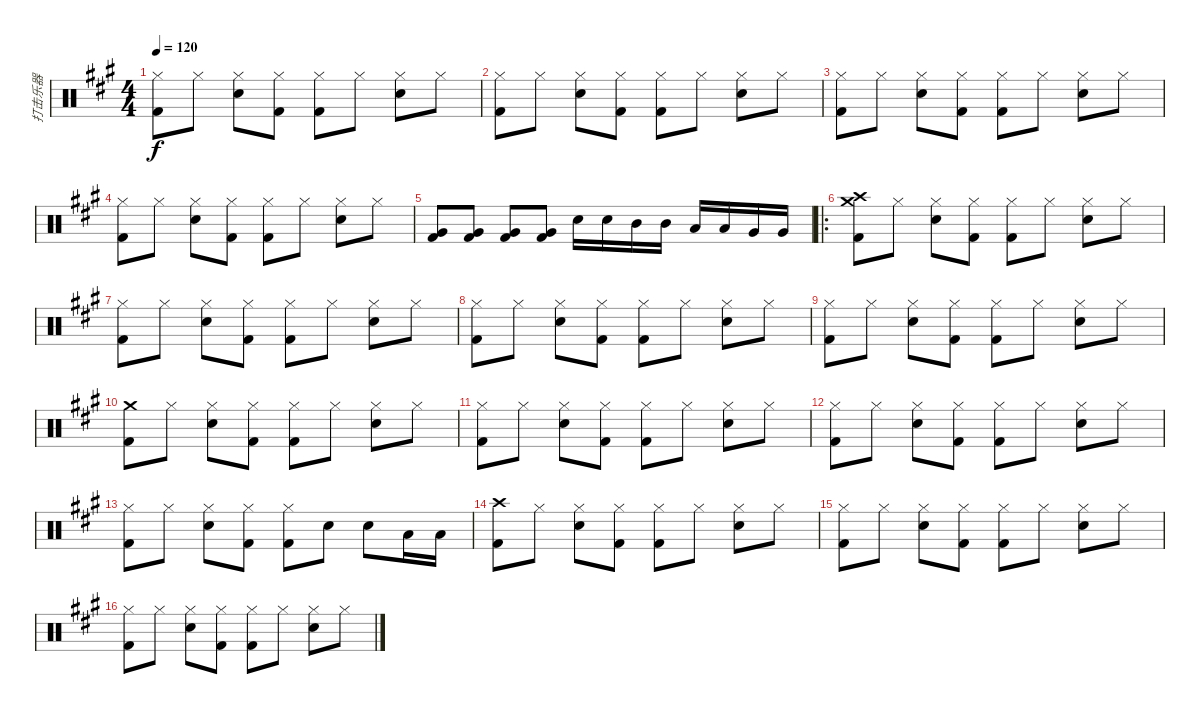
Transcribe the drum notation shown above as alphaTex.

\track ("打击乐器" "打击乐器") {instrument percussion}
\staff {score}
\articulation defaults
\ts (4 4)
\tempo 120
\clef neutral
\ks a
("Hi-Hat (closed)" "Kick (hit) 2").8{dy f} "Hi-Hat (closed)".8 ("Hi-Hat (closed)" "Electric Snare (hit)").8 ("Hi-Hat (closed)" "Kick (hit) 2").8 ("Hi-Hat (closed)" "Kick (hit) 2").8 "Hi-Hat (closed)".8 ("Hi-Hat (closed)" "Electric Snare (hit)").8 "Hi-Hat (closed)".8 |
("Hi-Hat (closed)" "Kick (hit) 2").8 "Hi-Hat (closed)".8 ("Hi-Hat (closed)" "Electric Snare (hit)").8 ("Hi-Hat (closed)" "Kick (hit) 2").8 ("Hi-Hat (closed)" "Kick (hit) 2").8 "Hi-Hat (closed)".8 ("Hi-Hat (closed)" "Electric Snare (hit)").8 "Hi-Hat (closed)".8 |
("Hi-Hat (closed)" "Kick (hit) 2").8 "Hi-Hat (closed)".8 ("Hi-Hat (closed)" "Electric Snare (hit)").8 ("Hi-Hat (closed)" "Kick (hit) 2").8 ("Hi-Hat (closed)" "Kick (hit) 2").8 "Hi-Hat (closed)".8 ("Hi-Hat (closed)" "Electric Snare (hit)").8 "Hi-Hat (closed)".8 |
("Hi-Hat (closed)" "Kick (hit) 2").8 "Hi-Hat (closed)".8 ("Hi-Hat (closed)" "Electric Snare (hit)").8 ("Hi-Hat (closed)" "Kick (hit) 2").8 ("Hi-Hat (closed)" "Kick (hit) 2").8 "Hi-Hat (closed)".8 ("Hi-Hat (closed)" "Electric Snare (hit)").8 "Hi-Hat (closed)".8 |
("Very Low Tom (hit)" "Kick (hit) 2").8 ("Very Low Tom (hit)" "Kick (hit) 2").8 ("Very Low Tom (hit)" "Kick (hit) 2").8 ("Very Low Tom (hit)" "Kick (hit) 2").8 "Electric Snare (hit)".16 "Electric Snare (hit)".16 "Mid Tom (hit)".16 "Mid Tom (hit)".16 "Low Tom (hit)".16 "Low Tom (hit)".16 "Very Low Tom (hit)".16 "Very Low Tom (hit)".16 |
\ro
("Crash high (hit)" "Crash medium (hit)" "Kick (hit) 2").8 "Hi-Hat (closed)".8 ("Hi-Hat (closed)" "Electric Snare (hit)").8 ("Hi-Hat (closed)" "Kick (hit) 2").8 ("Hi-Hat (closed)" "Kick (hit) 2").8 "Hi-Hat (closed)".8 ("Hi-Hat (closed)" "Electric Snare (hit)").8 "Hi-Hat (closed)".8 |
("Hi-Hat (closed)" "Kick (hit) 2").8 "Hi-Hat (closed)".8 ("Hi-Hat (closed)" "Electric Snare (hit)").8 ("Hi-Hat (closed)" "Kick (hit) 2").8 ("Hi-Hat (closed)" "Kick (hit) 2").8 "Hi-Hat (closed)".8 ("Hi-Hat (closed)" "Electric Snare (hit)").8 "Hi-Hat (closed)".8 |
("Hi-Hat (closed)" "Kick (hit) 2").8 "Hi-Hat (closed)".8 ("Hi-Hat (closed)" "Electric Snare (hit)").8 ("Hi-Hat (closed)" "Kick (hit) 2").8 ("Hi-Hat (closed)" "Kick (hit) 2").8 "Hi-Hat (closed)".8 ("Hi-Hat (closed)" "Electric Snare (hit)").8 "Hi-Hat (closed)".8 |
("Hi-Hat (closed)" "Kick (hit) 2").8 "Hi-Hat (closed)".8 ("Hi-Hat (closed)" "Electric Snare (hit)").8 ("Hi-Hat (closed)" "Kick (hit) 2").8 ("Hi-Hat (closed)" "Kick (hit) 2").8 "Hi-Hat (closed)".8 ("Hi-Hat (closed)" "Electric Snare (hit)").8 "Hi-Hat (closed)".8 |
("Crash medium (hit)" "Kick (hit) 2").8 "Hi-Hat (closed)".8 ("Hi-Hat (closed)" "Electric Snare (hit)").8 ("Hi-Hat (closed)" "Kick (hit) 2").8 ("Hi-Hat (closed)" "Kick (hit) 2").8 "Hi-Hat (closed)".8 ("Hi-Hat (closed)" "Electric Snare (hit)").8 "Hi-Hat (closed)".8 |
("Hi-Hat (closed)" "Kick (hit) 2").8 "Hi-Hat (closed)".8 ("Hi-Hat (closed)" "Electric Snare (hit)").8 ("Hi-Hat (closed)" "Kick (hit) 2").8 ("Hi-Hat (closed)" "Kick (hit) 2").8 "Hi-Hat (closed)".8 ("Hi-Hat (closed)" "Electric Snare (hit)").8 "Hi-Hat (closed)".8 |
("Hi-Hat (closed)" "Kick (hit) 2").8 "Hi-Hat (closed)".8 ("Hi-Hat (closed)" "Electric Snare (hit)").8 ("Hi-Hat (closed)" "Kick (hit) 2").8 ("Hi-Hat (closed)" "Kick (hit) 2").8 "Hi-Hat (closed)".8 ("Hi-Hat (closed)" "Electric Snare (hit)").8 "Hi-Hat (closed)".8 |
("Hi-Hat (closed)" "Kick (hit) 2").8 "Hi-Hat (closed)".8 ("Hi-Hat (closed)" "Electric Snare (hit)").8 ("Hi-Hat (closed)" "Kick (hit) 2").8 ("Hi-Hat (closed)" "Kick (hit) 2").8 "Electric Snare (hit)".8 "Electric Snare (hit)".8 "Low Tom (hit)".16 "Low Tom (hit)".16 |
("Crash high (hit)" "Kick (hit) 2").8 "Hi-Hat (closed)".8 ("Hi-Hat (closed)" "Electric Snare (hit)").8 ("Hi-Hat (closed)" "Kick (hit) 2").8 ("Hi-Hat (closed)" "Kick (hit) 2").8 "Hi-Hat (closed)".8 ("Hi-Hat (closed)" "Electric Snare (hit)").8 "Hi-Hat (closed)".8 |
("Hi-Hat (closed)" "Kick (hit) 2").8 "Hi-Hat (closed)".8 ("Hi-Hat (closed)" "Electric Snare (hit)").8 ("Hi-Hat (closed)" "Kick (hit) 2").8 ("Hi-Hat (closed)" "Kick (hit) 2").8 "Hi-Hat (closed)".8 ("Hi-Hat (closed)" "Electric Snare (hit)").8 "Hi-Hat (closed)".8 |
("Hi-Hat (closed)" "Kick (hit) 2").8 "Hi-Hat (closed)".8 ("Hi-Hat (closed)" "Electric Snare (hit)").8 ("Hi-Hat (closed)" "Kick (hit) 2").8 ("Hi-Hat (closed)" "Kick (hit) 2").8 "Hi-Hat (closed)".8 ("Hi-Hat (closed)" "Electric Snare (hit)").8 "Hi-Hat (closed)".8
